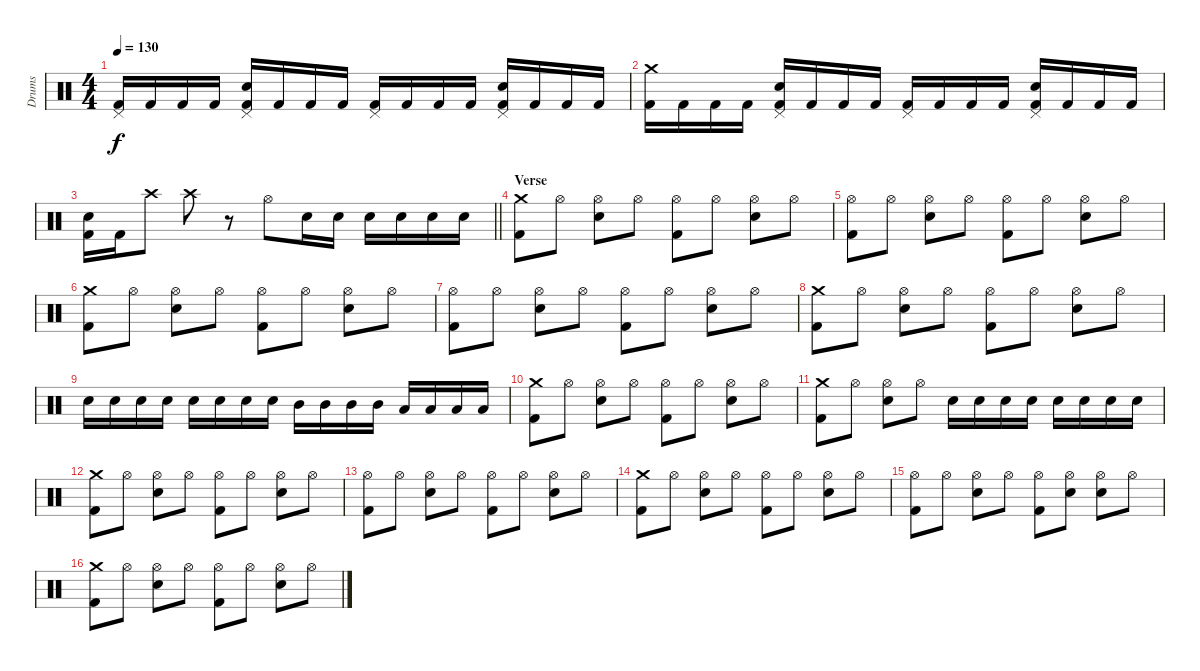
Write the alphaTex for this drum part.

\track ("Drums" "Drums") {instrument percussion}
\staff {score}
\articulation defaults
\ts (4 4)
\tempo 130
\clef neutral
\ks c
("Pedal Hi-Hat (hit)" "Kick (hit) 2").16{dy f} "Kick (hit) 2".16 "Kick (hit) 2".16 "Kick (hit) 2".16 ("Pedal Hi-Hat (hit)" "Electric Snare (hit)" "Kick (hit) 2").16 "Kick (hit) 2".16 "Kick (hit) 2".16 "Kick (hit) 2".16 ("Pedal Hi-Hat (hit)" "Kick (hit) 2").16 "Kick (hit) 2".16 "Kick (hit) 2".16 "Kick (hit) 2".16 ("Pedal Hi-Hat (hit)" "Electric Snare (hit)" "Kick (hit) 2").16 "Kick (hit) 2".16 "Kick (hit) 2".16 "Kick (hit) 2".16 |
("Crash medium (hit)" "Kick (hit) 2").16 "Kick (hit) 2".16 "Kick (hit) 2".16 "Kick (hit) 2".16 ("Pedal Hi-Hat (hit)" "Electric Snare (hit)" "Kick (hit) 2").16 "Kick (hit) 2".16 "Kick (hit) 2".16 "Kick (hit) 2".16 ("Pedal Hi-Hat (hit)" "Kick (hit) 2").16 "Kick (hit) 2".16 "Kick (hit) 2".16 "Kick (hit) 2".16 ("Pedal Hi-Hat (hit)" "Electric Snare (hit)" "Kick (hit) 2").16 "Kick (hit) 2".16 "Kick (hit) 2".16 "Kick (hit) 2".16 |
\barLineRight lightlight
("Electric Snare (hit)" "Kick (hit) 2").16 "Kick (hit) 2".16 "Crash high (hit)".8 "Crash high (hit)".8 r.8 "Hi-Hat (open)".8 "Electric Snare (hit)".16 "Electric Snare (hit)".16 "Electric Snare (hit)".16 "Electric Snare (hit)".16 "Electric Snare (hit)".16 "Electric Snare (hit)".16 |
\section ("" "Verse")
("Crash medium (hit)" "Kick (hit) 2").8 "Hi-Hat (open)".8 ("Hi-Hat (open)" "Electric Snare (hit)").8 "Hi-Hat (open)".8 ("Hi-Hat (open)" "Kick (hit) 2").8 "Hi-Hat (open)".8 ("Hi-Hat (open)" "Electric Snare (hit)").8 "Hi-Hat (open)".8 |
("Hi-Hat (open)" "Kick (hit) 2").8 "Hi-Hat (open)".8 ("Hi-Hat (open)" "Electric Snare (hit)").8 "Hi-Hat (open)".8 ("Hi-Hat (open)" "Kick (hit) 2").8 "Hi-Hat (open)".8 ("Hi-Hat (open)" "Electric Snare (hit)").8 "Hi-Hat (open)".8 |
("Crash medium (hit)" "Kick (hit) 2").8 "Hi-Hat (open)".8 ("Hi-Hat (open)" "Electric Snare (hit)").8 "Hi-Hat (open)".8 ("Hi-Hat (open)" "Kick (hit) 2").8 "Hi-Hat (open)".8 ("Hi-Hat (open)" "Electric Snare (hit)").8 "Hi-Hat (open)".8 |
("Hi-Hat (open)" "Kick (hit) 2").8 "Hi-Hat (open)".8 ("Hi-Hat (open)" "Electric Snare (hit)").8 "Hi-Hat (open)".8 ("Hi-Hat (open)" "Kick (hit) 2").8 "Hi-Hat (open)".8 ("Hi-Hat (open)" "Electric Snare (hit)").8 "Hi-Hat (open)".8 |
("Crash medium (hit)" "Kick (hit) 2").8 "Hi-Hat (open)".8 ("Hi-Hat (open)" "Electric Snare (hit)").8 "Hi-Hat (open)".8 ("Hi-Hat (open)" "Kick (hit) 2").8 "Hi-Hat (open)".8 ("Hi-Hat (open)" "Electric Snare (hit)").8 "Hi-Hat (open)".8 |
"Electric Snare (hit)".16 "Electric Snare (hit)".16 "Electric Snare (hit)".16 "Electric Snare (hit)".16 "Electric Snare (hit)".16 "Electric Snare (hit)".16 "Electric Snare (hit)".16 "Electric Snare (hit)".16 "Mid Tom (hit)".16 "Mid Tom (hit)".16 "Mid Tom (hit)".16 "Mid Tom (hit)".16 "Low Tom (hit)".16 "Low Tom (hit)".16 "Low Tom (hit)".16 "Low Tom (hit)".16 |
("Crash medium (hit)" "Kick (hit) 2").8 "Hi-Hat (open)".8 ("Hi-Hat (open)" "Electric Snare (hit)").8 "Hi-Hat (open)".8 ("Hi-Hat (open)" "Kick (hit) 2").8 "Hi-Hat (open)".8 ("Hi-Hat (open)" "Electric Snare (hit)").8 "Hi-Hat (open)".8 |
("Crash medium (hit)" "Kick (hit) 2").8 "Hi-Hat (open)".8 ("Hi-Hat (open)" "Electric Snare (hit)").8 "Hi-Hat (open)".8 "Electric Snare (hit)".16 "Electric Snare (hit)".16 "Electric Snare (hit)".16 "Electric Snare (hit)".16 "Electric Snare (hit)".16 "Electric Snare (hit)".16 "Electric Snare (hit)".16 "Electric Snare (hit)".16 |
("Crash medium (hit)" "Kick (hit) 2").8 "Hi-Hat (open)".8 ("Hi-Hat (open)" "Electric Snare (hit)").8 "Hi-Hat (open)".8 ("Hi-Hat (open)" "Kick (hit) 2").8 "Hi-Hat (open)".8 ("Hi-Hat (open)" "Electric Snare (hit)").8 "Hi-Hat (open)".8 |
("Hi-Hat (open)" "Kick (hit) 2").8 "Hi-Hat (open)".8 ("Hi-Hat (open)" "Electric Snare (hit)").8 "Hi-Hat (open)".8 ("Hi-Hat (open)" "Kick (hit) 2").8 "Hi-Hat (open)".8 ("Hi-Hat (open)" "Electric Snare (hit)").8 "Hi-Hat (open)".8 |
("Crash medium (hit)" "Kick (hit) 2").8 "Hi-Hat (open)".8 ("Hi-Hat (open)" "Electric Snare (hit)").8 "Hi-Hat (open)".8 ("Hi-Hat (open)" "Kick (hit) 2").8 "Hi-Hat (open)".8 ("Hi-Hat (open)" "Electric Snare (hit)").8 "Hi-Hat (open)".8 |
("Hi-Hat (open)" "Kick (hit) 2").8 "Hi-Hat (open)".8 ("Hi-Hat (open)" "Electric Snare (hit)").8 "Hi-Hat (open)".8 ("Hi-Hat (open)" "Kick (hit) 2").8 ("Hi-Hat (open)" "Electric Snare (hit)").8 ("Hi-Hat (open)" "Electric Snare (hit)").8 "Hi-Hat (open)".8 |
("Crash medium (hit)" "Kick (hit) 2").8 "Hi-Hat (open)".8 ("Hi-Hat (open)" "Electric Snare (hit)").8 "Hi-Hat (open)".8 ("Hi-Hat (open)" "Kick (hit) 2").8 "Hi-Hat (open)".8 ("Hi-Hat (open)" "Electric Snare (hit)").8 "Hi-Hat (open)".8
